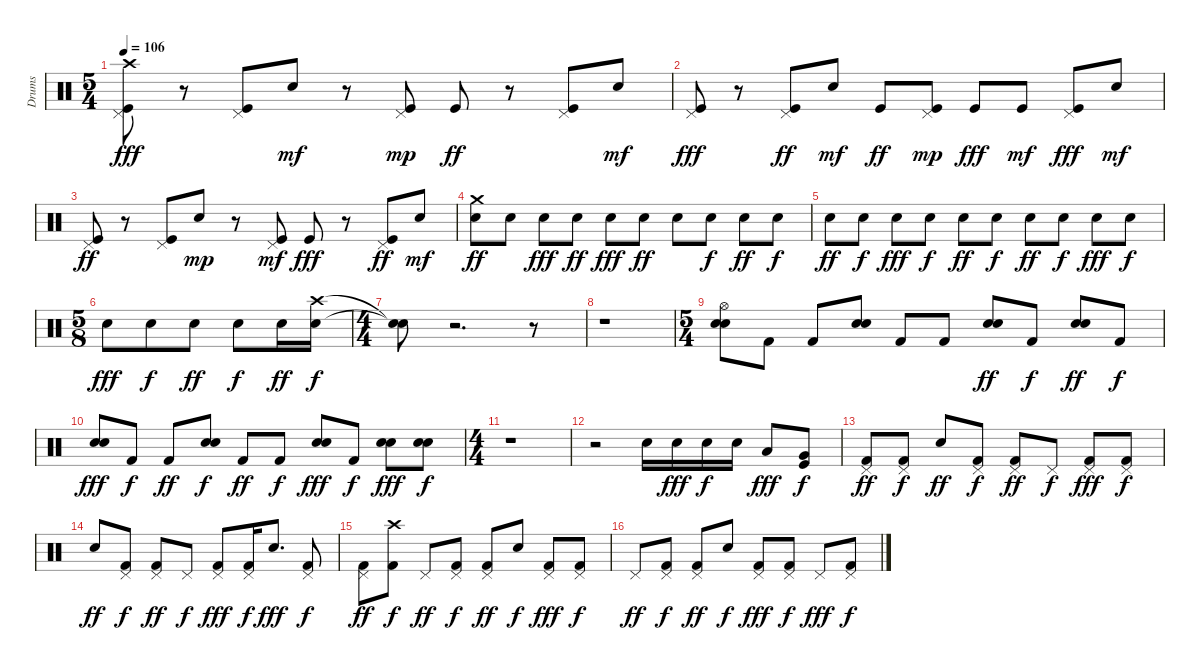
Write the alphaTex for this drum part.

\track ("Drums" "Drums") {instrument percussion}
\staff {score}
\articulation defaults
\ts (5 4)
\tempo 106
\clef neutral
\ks c
("Crash high (hit)" "Pedal Hi-Hat (hit)" "Kick (hit)").8{dy fff} r.8 ("Pedal Hi-Hat (hit)" "Kick (hit)").8 "Electric Snare (hit)".8{dy mf} r.8 ("Pedal Hi-Hat (hit)" "Kick (hit)").8{dy mp} "Kick (hit)".8{dy ff} r.8 ("Pedal Hi-Hat (hit)" "Kick (hit)").8 "Electric Snare (hit)".8{dy mf} |
("Pedal Hi-Hat (hit)" "Kick (hit)").8{dy fff} r.8 ("Pedal Hi-Hat (hit)" "Kick (hit)").8{dy ff} "Electric Snare (hit)".8{dy mf} "Kick (hit)".8{dy ff} ("Pedal Hi-Hat (hit)" "Kick (hit)").8{dy mp} "Kick (hit)".8{dy fff} "Kick (hit)".8{dy mf} ("Pedal Hi-Hat (hit)" "Kick (hit)").8{dy fff} "Electric Snare (hit)".8{dy mf} |
("Pedal Hi-Hat (hit)" "Kick (hit)").8{dy ff} r.8 ("Pedal Hi-Hat (hit)" "Kick (hit)").8 "Electric Snare (hit)".8{dy mp} r.8 ("Pedal Hi-Hat (hit)" "Kick (hit)").8{dy mf} "Kick (hit)".8{dy fff} r.8 ("Pedal Hi-Hat (hit)" "Kick (hit)").8{dy ff} "Electric Snare (hit)".8{dy mf} |
("Crash medium (hit)" "Snare (hit) 2").8{dy ff} "Snare (hit) 2".8 "Snare (hit) 2".8{dy fff} "Snare (hit) 2".8{dy ff} "Snare (hit) 2".8{dy fff} "Snare (hit) 2".8{dy ff} "Snare (hit) 2".8 "Snare (hit) 2".8{dy f} "Snare (hit) 2".8{dy ff} "Snare (hit) 2".8{dy f} |
"Snare (hit) 2".8{dy ff} "Snare (hit) 2".8{dy f} "Snare (hit) 2".8{dy fff} "Snare (hit) 2".8{dy f} "Snare (hit) 2".8{dy ff} "Snare (hit) 2".8{dy f} "Snare (hit) 2".8{dy ff} "Snare (hit) 2".8{dy f} "Snare (hit) 2".8{dy fff} "Snare (hit) 2".8{dy f} |
\ts (5 8)
"Snare (hit) 2".8{dy fff} "Snare (hit) 2".8{dy f} "Snare (hit) 2".8{dy ff} "Snare (hit) 2".8{dy f} "Electric Snare (hit)".16{dy ff} ("Crash high (hit)" "Snare (hit) 2").16{dy f} |
\ts (4 4)
("Snare (hit)"{t} "Snare (hit)"{t}).8 r.2{d} r.8 |
r.1 |
\ts (5 4)
("Snare (hit) 2" "Hi-Hat (open)" "Electric Snare (hit)").8 "Kick (hit) 2".8 "Kick (hit) 2".8 ("Electric Snare (hit)" "Snare (hit) 2").8 "Kick (hit) 2".8 "Kick (hit) 2".8 ("Snare (hit) 2" "Electric Snare (hit)").8{dy ff} "Kick (hit) 2".8{dy f} ("Snare (hit) 2" "Electric Snare (hit)").8{dy ff} "Kick (hit) 2".8{dy f} |
("Snare (hit) 2" "Electric Snare (hit)").8{dy fff} "Kick (hit) 2".8{dy f} "Kick (hit) 2".8{dy ff} ("Snare (hit) 2" "Electric Snare (hit)").8{dy f} "Kick (hit) 2".8{dy ff} "Kick (hit) 2".8{dy f} ("Electric Snare (hit)" "Snare (hit) 2").8{dy fff} "Kick (hit) 2".8{dy f} ("Snare (hit) 2" "Electric Snare (hit)").8{dy fff} ("Electric Snare (hit)" "Snare (hit) 2").8{dy f} |
\ts (4 4)
r.1 |
r.2 "Electric Snare (hit)".16 "Electric Snare (hit)".16{dy fff} "Electric Snare (hit)".16{dy f} "Electric Snare (hit)".16 "Low Tom (hit)".8{dy fff} ("Very Low Tom (hit)" "Kick (hit)").8{dy f} |
("Pedal Hi-Hat (hit)" "Kick (hit) 2").8{dy ff} ("Pedal Hi-Hat (hit)" "Kick (hit) 2").8{dy f} "Electric Snare (hit)".8{dy ff} ("Pedal Hi-Hat (hit)" "Kick (hit) 2").8{dy f} ("Pedal Hi-Hat (hit)" "Kick (hit) 2").8{dy ff} "Pedal Hi-Hat (hit)".8{dy f} ("Pedal Hi-Hat (hit)" "Kick (hit) 2").8{dy fff} ("Pedal Hi-Hat (hit)" "Kick (hit) 2").8{dy f} |
"Electric Snare (hit)".8{dy ff} ("Pedal Hi-Hat (hit)" "Kick (hit) 2").8{dy f} ("Pedal Hi-Hat (hit)" "Kick (hit) 2").8{dy ff} "Pedal Hi-Hat (hit)".8{dy f} ("Pedal Hi-Hat (hit)" "Kick (hit) 2").8{dy fff} ("Pedal Hi-Hat (hit)" "Kick (hit) 2").16{dy f} "Electric Snare (hit)".8{d dy fff} ("Pedal Hi-Hat (hit)" "Kick (hit) 2").8{dy f} |
("Pedal Hi-Hat (hit)" "Kick (hit) 2").8{dy ff} ("Crash high (hit)" "Kick (hit) 2").8{dy f} "Pedal Hi-Hat (hit)".8{dy ff} ("Pedal Hi-Hat (hit)" "Kick (hit) 2").8{dy f} ("Pedal Hi-Hat (hit)" "Kick (hit) 2").8{dy ff} "Electric Snare (hit)".8{dy f} ("Pedal Hi-Hat (hit)" "Kick (hit) 2").8{dy fff} ("Pedal Hi-Hat (hit)" "Kick (hit) 2").8{dy f} |
"Pedal Hi-Hat (hit)".8{dy ff} ("Pedal Hi-Hat (hit)" "Kick (hit) 2").8{dy f} ("Pedal Hi-Hat (hit)" "Kick (hit) 2").8{dy ff} "Electric Snare (hit)".8{dy f} ("Pedal Hi-Hat (hit)" "Kick (hit) 2").8{dy fff} ("Pedal Hi-Hat (hit)" "Kick (hit) 2").8{dy f} "Pedal Hi-Hat (hit)".8{dy fff} ("Pedal Hi-Hat (hit)" "Kick (hit) 2").8{dy f}
